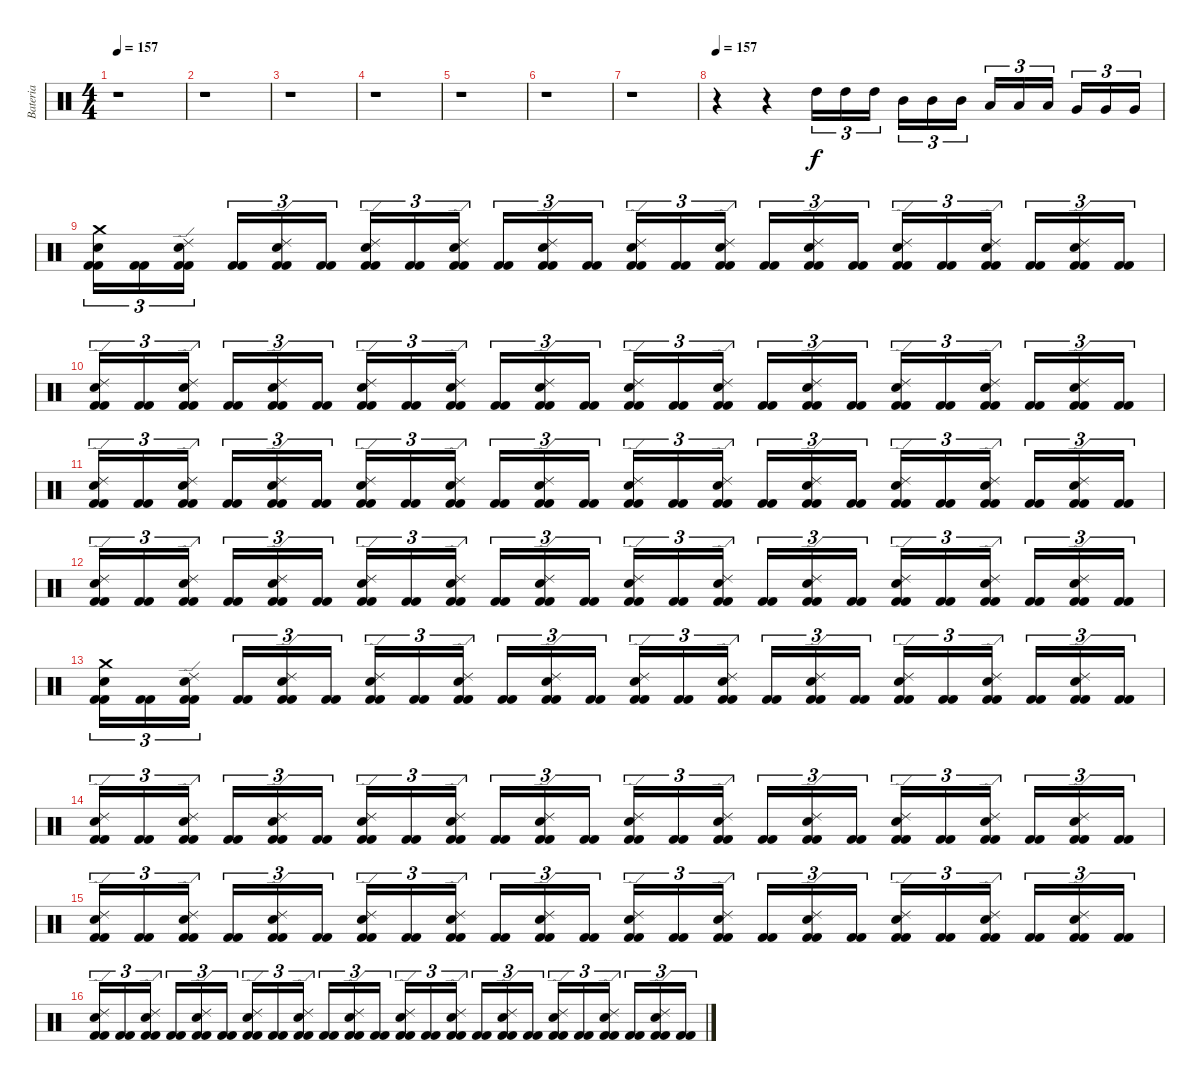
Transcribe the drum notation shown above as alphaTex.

\track ("Bateria" "Bateria") {instrument percussion}
\staff {score}
\articulation defaults
\ts (4 4)
\tempo 157
\clef neutral
\ks c
r.1{dy f} |
r.1 |
r.1 |
r.1 |
r.1 |
r.1 |
r.1 |
\tempo 157
r.4 r.4 "High Tom (hit)".16{tu (3 2)} "High Tom (hit)".16{tu (3 2)} "High Tom (hit)".16{tu (3 2)} "Mid Tom (hit)".16{tu (3 2)} "Mid Tom (hit)".16{tu (3 2)} "Mid Tom (hit)".16{tu (3 2)} "Low Tom (hit)".16{tu (3 2)} "Low Tom (hit)".16{tu (3 2)} "Low Tom (hit)".16{tu (3 2)} "Very Low Tom (hit)".16{tu (3 2)} "Very Low Tom (hit)".16{tu (3 2)} "Very Low Tom (hit)".16{tu (3 2)} |
("Kick (hit) 2" "Kick (hit) 2" "Snare (hit) 2" "Crash medium (hit)").16{tu (3 2)} ("Kick (hit) 2" "Kick (hit) 2").16{tu (3 2)} ("Kick (hit) 2" "Kick (hit) 2" "Snare (hit) 2" "Ride (edge) 2").16{tu (3 2)} ("Kick (hit) 2" "Kick (hit) 2").16{tu (3 2)} ("Kick (hit) 2" "Kick (hit) 2" "Snare (hit) 2" "Ride (edge) 2").16{tu (3 2)} ("Kick (hit) 2" "Kick (hit) 2").16{tu (3 2)} ("Kick (hit) 2" "Kick (hit) 2" "Snare (hit) 2" "Ride (edge) 2").16{tu (3 2)} ("Kick (hit) 2" "Kick (hit) 2").16{tu (3 2)} ("Kick (hit) 2" "Kick (hit) 2" "Snare (hit) 2" "Ride (edge) 2").16{tu (3 2)} ("Kick (hit) 2" "Kick (hit) 2").16{tu (3 2)} ("Kick (hit) 2" "Kick (hit) 2" "Snare (hit) 2" "Ride (edge) 2").16{tu (3 2)} ("Kick (hit) 2" "Kick (hit) 2").16{tu (3 2)} ("Kick (hit) 2" "Kick (hit) 2" "Snare (hit) 2" "Ride (edge) 2").16{tu (3 2)} ("Kick (hit) 2" "Kick (hit) 2").16{tu (3 2)} ("Kick (hit) 2" "Kick (hit) 2" "Snare (hit) 2" "Ride (edge) 2").16{tu (3 2)} ("Kick (hit) 2" "Kick (hit) 2").16{tu (3 2)} ("Kick (hit) 2" "Kick (hit) 2" "Snare (hit) 2" "Ride (edge) 2").16{tu (3 2)} ("Kick (hit) 2" "Kick (hit) 2").16{tu (3 2)} ("Kick (hit) 2" "Kick (hit) 2" "Snare (hit) 2" "Ride (edge) 2").16{tu (3 2)} ("Kick (hit) 2" "Kick (hit) 2").16{tu (3 2)} ("Kick (hit) 2" "Kick (hit) 2" "Snare (hit) 2" "Ride (edge) 2").16{tu (3 2)} ("Kick (hit) 2" "Kick (hit) 2").16{tu (3 2)} ("Kick (hit) 2" "Kick (hit) 2" "Snare (hit) 2" "Ride (edge) 2").16{tu (3 2)} ("Kick (hit) 2" "Kick (hit) 2").16{tu (3 2)} |
("Kick (hit) 2" "Kick (hit) 2" "Snare (hit) 2" "Ride (edge) 2").16{tu (3 2)} ("Kick (hit) 2" "Kick (hit) 2").16{tu (3 2)} ("Kick (hit) 2" "Kick (hit) 2" "Snare (hit) 2" "Ride (edge) 2").16{tu (3 2)} ("Kick (hit) 2" "Kick (hit) 2").16{tu (3 2)} ("Kick (hit) 2" "Kick (hit) 2" "Snare (hit) 2" "Ride (edge) 2").16{tu (3 2)} ("Kick (hit) 2" "Kick (hit) 2").16{tu (3 2)} ("Kick (hit) 2" "Kick (hit) 2" "Snare (hit) 2" "Ride (edge) 2").16{tu (3 2)} ("Kick (hit) 2" "Kick (hit) 2").16{tu (3 2)} ("Kick (hit) 2" "Kick (hit) 2" "Snare (hit) 2" "Ride (edge) 2").16{tu (3 2)} ("Kick (hit) 2" "Kick (hit) 2").16{tu (3 2)} ("Kick (hit) 2" "Kick (hit) 2" "Snare (hit) 2" "Ride (edge) 2").16{tu (3 2)} ("Kick (hit) 2" "Kick (hit) 2").16{tu (3 2)} ("Kick (hit) 2" "Kick (hit) 2" "Snare (hit) 2" "Ride (edge) 2").16{tu (3 2)} ("Kick (hit) 2" "Kick (hit) 2").16{tu (3 2)} ("Kick (hit) 2" "Kick (hit) 2" "Snare (hit) 2" "Ride (edge) 2").16{tu (3 2)} ("Kick (hit) 2" "Kick (hit) 2").16{tu (3 2)} ("Kick (hit) 2" "Kick (hit) 2" "Snare (hit) 2" "Ride (edge) 2").16{tu (3 2)} ("Kick (hit) 2" "Kick (hit) 2").16{tu (3 2)} ("Kick (hit) 2" "Kick (hit) 2" "Snare (hit) 2" "Ride (edge) 2").16{tu (3 2)} ("Kick (hit) 2" "Kick (hit) 2").16{tu (3 2)} ("Kick (hit) 2" "Kick (hit) 2" "Snare (hit) 2" "Ride (edge) 2").16{tu (3 2)} ("Kick (hit) 2" "Kick (hit) 2").16{tu (3 2)} ("Kick (hit) 2" "Kick (hit) 2" "Snare (hit) 2" "Ride (edge) 2").16{tu (3 2)} ("Kick (hit) 2" "Kick (hit) 2").16{tu (3 2)} |
("Kick (hit) 2" "Kick (hit) 2" "Snare (hit) 2" "Ride (edge) 2").16{tu (3 2)} ("Kick (hit) 2" "Kick (hit) 2").16{tu (3 2)} ("Kick (hit) 2" "Kick (hit) 2" "Snare (hit) 2" "Ride (edge) 2").16{tu (3 2)} ("Kick (hit) 2" "Kick (hit) 2").16{tu (3 2)} ("Kick (hit) 2" "Kick (hit) 2" "Snare (hit) 2" "Ride (edge) 2").16{tu (3 2)} ("Kick (hit) 2" "Kick (hit) 2").16{tu (3 2)} ("Kick (hit) 2" "Kick (hit) 2" "Snare (hit) 2" "Ride (edge) 2").16{tu (3 2)} ("Kick (hit) 2" "Kick (hit) 2").16{tu (3 2)} ("Kick (hit) 2" "Kick (hit) 2" "Snare (hit) 2" "Ride (edge) 2").16{tu (3 2)} ("Kick (hit) 2" "Kick (hit) 2").16{tu (3 2)} ("Kick (hit) 2" "Kick (hit) 2" "Snare (hit) 2" "Ride (edge) 2").16{tu (3 2)} ("Kick (hit) 2" "Kick (hit) 2").16{tu (3 2)} ("Kick (hit) 2" "Kick (hit) 2" "Snare (hit) 2" "Ride (edge) 2").16{tu (3 2)} ("Kick (hit) 2" "Kick (hit) 2").16{tu (3 2)} ("Kick (hit) 2" "Kick (hit) 2" "Snare (hit) 2" "Ride (edge) 2").16{tu (3 2)} ("Kick (hit) 2" "Kick (hit) 2").16{tu (3 2)} ("Kick (hit) 2" "Kick (hit) 2" "Snare (hit) 2" "Ride (edge) 2").16{tu (3 2)} ("Kick (hit) 2" "Kick (hit) 2").16{tu (3 2)} ("Kick (hit) 2" "Kick (hit) 2" "Snare (hit) 2" "Ride (edge) 2").16{tu (3 2)} ("Kick (hit) 2" "Kick (hit) 2").16{tu (3 2)} ("Kick (hit) 2" "Kick (hit) 2" "Snare (hit) 2" "Ride (edge) 2").16{tu (3 2)} ("Kick (hit) 2" "Kick (hit) 2").16{tu (3 2)} ("Kick (hit) 2" "Kick (hit) 2" "Snare (hit) 2" "Ride (edge) 2").16{tu (3 2)} ("Kick (hit) 2" "Kick (hit) 2").16{tu (3 2)} |
("Kick (hit) 2" "Kick (hit) 2" "Snare (hit) 2" "Ride (edge) 2").16{tu (3 2)} ("Kick (hit) 2" "Kick (hit) 2").16{tu (3 2)} ("Kick (hit) 2" "Kick (hit) 2" "Snare (hit) 2" "Ride (edge) 2").16{tu (3 2)} ("Kick (hit) 2" "Kick (hit) 2").16{tu (3 2)} ("Kick (hit) 2" "Kick (hit) 2" "Snare (hit) 2" "Ride (edge) 2").16{tu (3 2)} ("Kick (hit) 2" "Kick (hit) 2").16{tu (3 2)} ("Kick (hit) 2" "Kick (hit) 2" "Snare (hit) 2" "Ride (edge) 2").16{tu (3 2)} ("Kick (hit) 2" "Kick (hit) 2").16{tu (3 2)} ("Kick (hit) 2" "Kick (hit) 2" "Snare (hit) 2" "Ride (edge) 2").16{tu (3 2)} ("Kick (hit) 2" "Kick (hit) 2").16{tu (3 2)} ("Kick (hit) 2" "Kick (hit) 2" "Snare (hit) 2" "Ride (edge) 2").16{tu (3 2)} ("Kick (hit) 2" "Kick (hit) 2").16{tu (3 2)} ("Kick (hit) 2" "Kick (hit) 2" "Snare (hit) 2" "Ride (edge) 2").16{tu (3 2)} ("Kick (hit) 2" "Kick (hit) 2").16{tu (3 2)} ("Kick (hit) 2" "Kick (hit) 2" "Snare (hit) 2" "Ride (edge) 2").16{tu (3 2)} ("Kick (hit) 2" "Kick (hit) 2").16{tu (3 2)} ("Kick (hit) 2" "Kick (hit) 2" "Snare (hit) 2" "Ride (edge) 2").16{tu (3 2)} ("Kick (hit) 2" "Kick (hit) 2").16{tu (3 2)} ("Kick (hit) 2" "Kick (hit) 2" "Snare (hit) 2" "Ride (edge) 2").16{tu (3 2)} ("Kick (hit) 2" "Kick (hit) 2").16{tu (3 2)} ("Kick (hit) 2" "Kick (hit) 2" "Snare (hit) 2" "Ride (edge) 2").16{tu (3 2)} ("Kick (hit) 2" "Kick (hit) 2").16{tu (3 2)} ("Kick (hit) 2" "Kick (hit) 2" "Snare (hit) 2" "Ride (edge) 2").16{tu (3 2)} ("Kick (hit) 2" "Kick (hit) 2").16{tu (3 2)} |
("Kick (hit) 2" "Kick (hit) 2" "Snare (hit) 2" "Crash medium (hit)").16{tu (3 2)} ("Kick (hit) 2" "Kick (hit) 2").16{tu (3 2)} ("Kick (hit) 2" "Kick (hit) 2" "Snare (hit) 2" "Ride (edge) 2").16{tu (3 2)} ("Kick (hit) 2" "Kick (hit) 2").16{tu (3 2)} ("Kick (hit) 2" "Kick (hit) 2" "Snare (hit) 2" "Ride (edge) 2").16{tu (3 2)} ("Kick (hit) 2" "Kick (hit) 2").16{tu (3 2)} ("Kick (hit) 2" "Kick (hit) 2" "Snare (hit) 2" "Ride (edge) 2").16{tu (3 2)} ("Kick (hit) 2" "Kick (hit) 2").16{tu (3 2)} ("Kick (hit) 2" "Kick (hit) 2" "Snare (hit) 2" "Ride (edge) 2").16{tu (3 2)} ("Kick (hit) 2" "Kick (hit) 2").16{tu (3 2)} ("Kick (hit) 2" "Kick (hit) 2" "Snare (hit) 2" "Ride (edge) 2").16{tu (3 2)} ("Kick (hit) 2" "Kick (hit) 2").16{tu (3 2)} ("Kick (hit) 2" "Kick (hit) 2" "Snare (hit) 2" "Ride (edge) 2").16{tu (3 2)} ("Kick (hit) 2" "Kick (hit) 2").16{tu (3 2)} ("Kick (hit) 2" "Kick (hit) 2" "Snare (hit) 2" "Ride (edge) 2").16{tu (3 2)} ("Kick (hit) 2" "Kick (hit) 2").16{tu (3 2)} ("Kick (hit) 2" "Kick (hit) 2" "Snare (hit) 2" "Ride (edge) 2").16{tu (3 2)} ("Kick (hit) 2" "Kick (hit) 2").16{tu (3 2)} ("Kick (hit) 2" "Kick (hit) 2" "Snare (hit) 2" "Ride (edge) 2").16{tu (3 2)} ("Kick (hit) 2" "Kick (hit) 2").16{tu (3 2)} ("Kick (hit) 2" "Kick (hit) 2" "Snare (hit) 2" "Ride (edge) 2").16{tu (3 2)} ("Kick (hit) 2" "Kick (hit) 2").16{tu (3 2)} ("Kick (hit) 2" "Kick (hit) 2" "Snare (hit) 2" "Ride (edge) 2").16{tu (3 2)} ("Kick (hit) 2" "Kick (hit) 2").16{tu (3 2)} |
("Kick (hit) 2" "Kick (hit) 2" "Snare (hit) 2" "Ride (edge) 2").16{tu (3 2)} ("Kick (hit) 2" "Kick (hit) 2").16{tu (3 2)} ("Kick (hit) 2" "Kick (hit) 2" "Snare (hit) 2" "Ride (edge) 2").16{tu (3 2)} ("Kick (hit) 2" "Kick (hit) 2").16{tu (3 2)} ("Kick (hit) 2" "Kick (hit) 2" "Snare (hit) 2" "Ride (edge) 2").16{tu (3 2)} ("Kick (hit) 2" "Kick (hit) 2").16{tu (3 2)} ("Kick (hit) 2" "Kick (hit) 2" "Snare (hit) 2" "Ride (edge) 2").16{tu (3 2)} ("Kick (hit) 2" "Kick (hit) 2").16{tu (3 2)} ("Kick (hit) 2" "Kick (hit) 2" "Snare (hit) 2" "Ride (edge) 2").16{tu (3 2)} ("Kick (hit) 2" "Kick (hit) 2").16{tu (3 2)} ("Kick (hit) 2" "Kick (hit) 2" "Snare (hit) 2" "Ride (edge) 2").16{tu (3 2)} ("Kick (hit) 2" "Kick (hit) 2").16{tu (3 2)} ("Kick (hit) 2" "Kick (hit) 2" "Snare (hit) 2" "Ride (edge) 2").16{tu (3 2)} ("Kick (hit) 2" "Kick (hit) 2").16{tu (3 2)} ("Kick (hit) 2" "Kick (hit) 2" "Snare (hit) 2" "Ride (edge) 2").16{tu (3 2)} ("Kick (hit) 2" "Kick (hit) 2").16{tu (3 2)} ("Kick (hit) 2" "Kick (hit) 2" "Snare (hit) 2" "Ride (edge) 2").16{tu (3 2)} ("Kick (hit) 2" "Kick (hit) 2").16{tu (3 2)} ("Kick (hit) 2" "Kick (hit) 2" "Snare (hit) 2" "Ride (edge) 2").16{tu (3 2)} ("Kick (hit) 2" "Kick (hit) 2").16{tu (3 2)} ("Kick (hit) 2" "Kick (hit) 2" "Snare (hit) 2" "Ride (edge) 2").16{tu (3 2)} ("Kick (hit) 2" "Kick (hit) 2").16{tu (3 2)} ("Kick (hit) 2" "Kick (hit) 2" "Snare (hit) 2" "Ride (edge) 2").16{tu (3 2)} ("Kick (hit) 2" "Kick (hit) 2").16{tu (3 2)} |
("Kick (hit) 2" "Kick (hit) 2" "Snare (hit) 2" "Ride (edge) 2").16{tu (3 2)} ("Kick (hit) 2" "Kick (hit) 2").16{tu (3 2)} ("Kick (hit) 2" "Kick (hit) 2" "Snare (hit) 2" "Ride (edge) 2").16{tu (3 2)} ("Kick (hit) 2" "Kick (hit) 2").16{tu (3 2)} ("Kick (hit) 2" "Kick (hit) 2" "Snare (hit) 2" "Ride (edge) 2").16{tu (3 2)} ("Kick (hit) 2" "Kick (hit) 2").16{tu (3 2)} ("Kick (hit) 2" "Kick (hit) 2" "Snare (hit) 2" "Ride (edge) 2").16{tu (3 2)} ("Kick (hit) 2" "Kick (hit) 2").16{tu (3 2)} ("Kick (hit) 2" "Kick (hit) 2" "Snare (hit) 2" "Ride (edge) 2").16{tu (3 2)} ("Kick (hit) 2" "Kick (hit) 2").16{tu (3 2)} ("Kick (hit) 2" "Kick (hit) 2" "Snare (hit) 2" "Ride (edge) 2").16{tu (3 2)} ("Kick (hit) 2" "Kick (hit) 2").16{tu (3 2)} ("Kick (hit) 2" "Kick (hit) 2" "Snare (hit) 2" "Ride (edge) 2").16{tu (3 2)} ("Kick (hit) 2" "Kick (hit) 2").16{tu (3 2)} ("Kick (hit) 2" "Kick (hit) 2" "Snare (hit) 2" "Ride (edge) 2").16{tu (3 2)} ("Kick (hit) 2" "Kick (hit) 2").16{tu (3 2)} ("Kick (hit) 2" "Kick (hit) 2" "Snare (hit) 2" "Ride (edge) 2").16{tu (3 2)} ("Kick (hit) 2" "Kick (hit) 2").16{tu (3 2)} ("Kick (hit) 2" "Kick (hit) 2" "Snare (hit) 2" "Ride (edge) 2").16{tu (3 2)} ("Kick (hit) 2" "Kick (hit) 2").16{tu (3 2)} ("Kick (hit) 2" "Kick (hit) 2" "Snare (hit) 2" "Ride (edge) 2").16{tu (3 2)} ("Kick (hit) 2" "Kick (hit) 2").16{tu (3 2)} ("Kick (hit) 2" "Kick (hit) 2" "Snare (hit) 2" "Ride (edge) 2").16{tu (3 2)} ("Kick (hit) 2" "Kick (hit) 2").16{tu (3 2)} |
("Kick (hit) 2" "Kick (hit) 2" "Snare (hit) 2" "Ride (edge) 2").16{tu (3 2)} ("Kick (hit) 2" "Kick (hit) 2").16{tu (3 2)} ("Kick (hit) 2" "Kick (hit) 2" "Snare (hit) 2" "Ride (edge) 2").16{tu (3 2)} ("Kick (hit) 2" "Kick (hit) 2").16{tu (3 2)} ("Kick (hit) 2" "Kick (hit) 2" "Snare (hit) 2" "Ride (edge) 2").16{tu (3 2)} ("Kick (hit) 2" "Kick (hit) 2").16{tu (3 2)} ("Kick (hit) 2" "Kick (hit) 2" "Snare (hit) 2" "Ride (edge) 2").16{tu (3 2)} ("Kick (hit) 2" "Kick (hit) 2").16{tu (3 2)} ("Kick (hit) 2" "Kick (hit) 2" "Snare (hit) 2" "Ride (edge) 2").16{tu (3 2)} ("Kick (hit) 2" "Kick (hit) 2").16{tu (3 2)} ("Kick (hit) 2" "Kick (hit) 2" "Snare (hit) 2" "Ride (edge) 2").16{tu (3 2)} ("Kick (hit) 2" "Kick (hit) 2").16{tu (3 2)} ("Kick (hit) 2" "Kick (hit) 2" "Snare (hit) 2" "Ride (edge) 2").16{tu (3 2)} ("Kick (hit) 2" "Kick (hit) 2").16{tu (3 2)} ("Kick (hit) 2" "Kick (hit) 2" "Snare (hit) 2" "Ride (edge) 2").16{tu (3 2)} ("Kick (hit) 2" "Kick (hit) 2").16{tu (3 2)} ("Kick (hit) 2" "Kick (hit) 2" "Snare (hit) 2" "Ride (edge) 2").16{tu (3 2)} ("Kick (hit) 2" "Kick (hit) 2").16{tu (3 2)} ("Kick (hit) 2" "Kick (hit) 2" "Snare (hit) 2" "Ride (edge) 2").16{tu (3 2)} ("Kick (hit) 2" "Kick (hit) 2").16{tu (3 2)} ("Kick (hit) 2" "Kick (hit) 2" "Snare (hit) 2" "Ride (edge) 2").16{tu (3 2)} ("Kick (hit) 2" "Kick (hit) 2").16{tu (3 2)} ("Kick (hit) 2" "Kick (hit) 2" "Snare (hit) 2" "Ride (edge) 2").16{tu (3 2)} ("Kick (hit) 2" "Kick (hit) 2").16{tu (3 2)}
